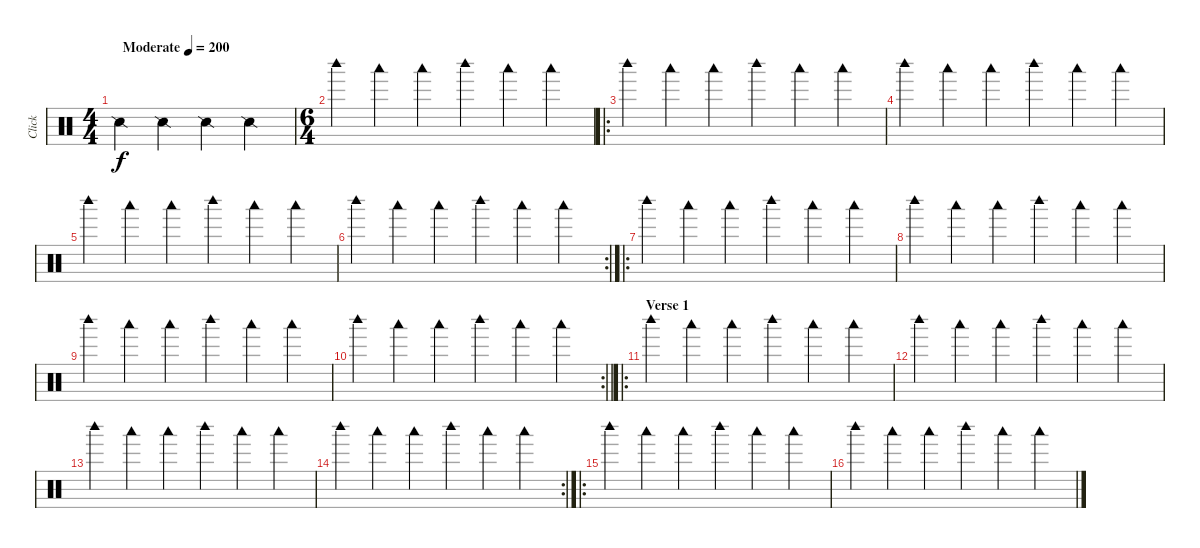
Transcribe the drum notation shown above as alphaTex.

\track ("Click" "Click") {mute instrument percussion}
\staff {score}
\articulation defaults
\ts (4 4)
\tempo (200 "Moderate")
\clef neutral
\ks c "Snare (side stick) 2".4{dy f} "Snare (side stick) 2".4 "Snare (side stick) 2".4 "Snare (side stick) 2".4
|
\ts (6 4)
"Woodblock high (hit)".4 "Woodblock low (hit)".4 "Woodblock low (hit)".4 "Woodblock high (hit)".4 "Woodblock low (hit)".4 "Woodblock low (hit)".4 |
\ro "Woodblock high (hit)".4 "Woodblock low (hit)".4 "Woodblock low (hit)".4 "Woodblock high (hit)".4 "Woodblock low (hit)".4 "Woodblock low (hit)".4
|
"Woodblock high (hit)".4 "Woodblock low (hit)".4 "Woodblock low (hit)".4 "Woodblock high (hit)".4 "Woodblock low (hit)".4 "Woodblock low (hit)".4 |
"Woodblock high (hit)".4 "Woodblock low (hit)".4 "Woodblock low (hit)".4 "Woodblock high (hit)".4 "Woodblock low (hit)".4 "Woodblock low (hit)".4 |
\rc 2 "Woodblock high (hit)".4 "Woodblock low (hit)".4 "Woodblock low (hit)".4 "Woodblock high (hit)".4 "Woodblock low (hit)".4 "Woodblock low (hit)".4
|
\ro "Woodblock high (hit)".4 "Woodblock low (hit)".4 "Woodblock low (hit)".4 "Woodblock high (hit)".4 "Woodblock low (hit)".4 "Woodblock low (hit)".4
|
"Woodblock high (hit)".4 "Woodblock low (hit)".4 "Woodblock low (hit)".4 "Woodblock high (hit)".4 "Woodblock low (hit)".4 "Woodblock low (hit)".4 |
"Woodblock high (hit)".4 "Woodblock low (hit)".4 "Woodblock low (hit)".4 "Woodblock high (hit)".4 "Woodblock low (hit)".4 "Woodblock low (hit)".4 |
\rc 2
\barLineRight lightlight "Woodblock high (hit)".4 "Woodblock low (hit)".4 "Woodblock low (hit)".4 "Woodblock high (hit)".4 "Woodblock low (hit)".4 "Woodblock low (hit)".4
|
\ro
\section ("" "Verse 1")
"Woodblock high (hit)".4 "Woodblock low (hit)".4 "Woodblock low (hit)".4 "Woodblock high (hit)".4 "Woodblock low (hit)".4 "Woodblock low (hit)".4 |
"Woodblock high (hit)".4 "Woodblock low (hit)".4 "Woodblock low (hit)".4 "Woodblock high (hit)".4 "Woodblock low (hit)".4 "Woodblock low (hit)".4 |
"Woodblock high (hit)".4 "Woodblock low (hit)".4 "Woodblock low (hit)".4 "Woodblock high (hit)".4 "Woodblock low (hit)".4 "Woodblock low (hit)".4 |
\rc 2 "Woodblock high (hit)".4 "Woodblock low (hit)".4 "Woodblock low (hit)".4 "Woodblock high (hit)".4 "Woodblock low (hit)".4 "Woodblock low (hit)".4
|
\ro "Woodblock high (hit)".4 "Woodblock low (hit)".4 "Woodblock low (hit)".4 "Woodblock high (hit)".4 "Woodblock low (hit)".4 "Woodblock low (hit)".4
|
"Woodblock high (hit)".4 "Woodblock low (hit)".4 "Woodblock low (hit)".4 "Woodblock high (hit)".4 "Woodblock low (hit)".4 "Woodblock low (hit)".4
